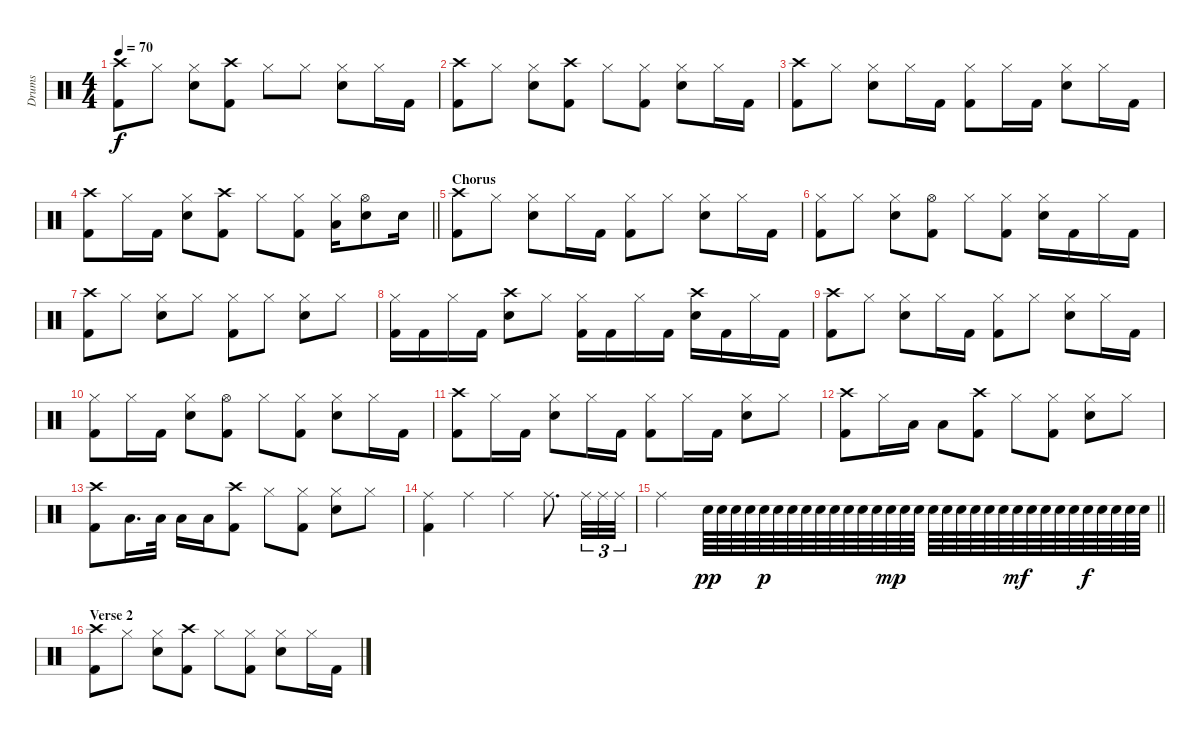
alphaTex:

\track ("Drums" "Drums") {instrument percussion}
\staff {score}
\articulation defaults
\ts (4 4)
\tempo 70
\clef neutral
\ks c
("Crash high (hit)" "Kick (hit) 2").8{dy f} "Hi-Hat (closed)".8 ("Hi-Hat (closed)" "Snare (hit) 2").8 ("Crash high (hit)" "Kick (hit) 2").8 "Hi-Hat (closed)".8 "Hi-Hat (closed)".8 ("Hi-Hat (closed)" "Snare (hit) 2").8 "Hi-Hat (closed)".16 "Kick (hit) 2".16 |
("Crash high (hit)" "Kick (hit) 2").8 "Hi-Hat (closed)".8 ("Hi-Hat (closed)" "Snare (hit) 2").8 ("Crash high (hit)" "Kick (hit) 2").8 "Hi-Hat (closed)".8 ("Hi-Hat (closed)" "Kick (hit) 2").8 ("Hi-Hat (closed)" "Snare (hit) 2").8 "Hi-Hat (closed)".16 "Kick (hit) 2".16 |
("Crash high (hit)" "Kick (hit) 2").8 "Hi-Hat (closed)".8 ("Hi-Hat (closed)" "Snare (hit) 2").8 "Hi-Hat (closed)".16 "Kick (hit) 2".16 ("Hi-Hat (closed)" "Kick (hit) 2").8 "Hi-Hat (closed)".16 "Kick (hit) 2".16 ("Hi-Hat (closed)" "Snare (hit) 2").8 "Hi-Hat (closed)".16 "Kick (hit) 2".16 |
\barLineRight lightlight
("Crash high (hit)" "Kick (hit) 2").8 "Hi-Hat (closed)".16 "Kick (hit) 2".16 ("Hi-Hat (closed)" "Snare (hit) 2").8 ("Crash high (hit)" "Kick (hit) 2").8 "Hi-Hat (closed)".8 ("Hi-Hat (closed)" "Kick (hit) 2").8 ("Hi-Hat (closed)" "Low Tom (hit)").16 ("Hi-Hat (open)" "Snare (hit) 2").8 "Snare (hit) 2".16 |
\section ("" "Chorus")
("Crash high (hit)" "Kick (hit) 2").8 "Hi-Hat (closed)".8 ("Hi-Hat (closed)" "Snare (hit) 2").8 "Hi-Hat (closed)".16 "Kick (hit) 2".16 ("Hi-Hat (closed)" "Kick (hit) 2").8 "Hi-Hat (closed)".8 ("Hi-Hat (closed)" "Snare (hit) 2").8 "Hi-Hat (closed)".16 "Kick (hit) 2".16 |
("Hi-Hat (closed)" "Kick (hit) 2").8 "Hi-Hat (closed)".8 ("Hi-Hat (closed)" "Snare (hit) 2").8 ("Hi-Hat (open)" "Kick (hit) 2").8 "Hi-Hat (closed)".8 ("Hi-Hat (closed)" "Kick (hit) 2").8 ("Hi-Hat (closed)" "Snare (hit) 2").16 "Kick (hit) 2".16 "Hi-Hat (closed)".16 "Kick (hit) 2".16 |
("Crash high (hit)" "Kick (hit) 2").8 "Hi-Hat (closed)".8 ("Hi-Hat (closed)" "Snare (hit) 2").8 "Hi-Hat (closed)".8 ("Hi-Hat (closed)" "Kick (hit) 2").8 "Hi-Hat (closed)".8 ("Hi-Hat (closed)" "Snare (hit) 2").8 "Hi-Hat (closed)".8 |
("Hi-Hat (closed)" "Kick (hit) 2").16 "Kick (hit) 2".16 "Hi-Hat (closed)".16 "Kick (hit) 2".16 ("Crash high (hit)" "Snare (hit) 2").8 "Hi-Hat (closed)".8 ("Hi-Hat (closed)" "Kick (hit) 2").16 "Kick (hit) 2".16 "Hi-Hat (closed)".16 "Kick (hit) 2".16 ("Crash high (hit)" "Snare (hit) 2").16 "Kick (hit) 2".16 "Hi-Hat (closed)".16 "Kick (hit) 2".16 |
("Crash high (hit)" "Kick (hit) 2").8 "Hi-Hat (closed)".8 ("Hi-Hat (closed)" "Snare (hit) 2").8 "Hi-Hat (closed)".16 "Kick (hit) 2".16 ("Hi-Hat (closed)" "Kick (hit) 2").8 "Hi-Hat (closed)".8 ("Hi-Hat (closed)" "Snare (hit) 2").8 "Hi-Hat (closed)".16 "Kick (hit) 2".16 |
("Hi-Hat (closed)" "Kick (hit) 2").8 "Hi-Hat (closed)".16 "Kick (hit) 2".16 ("Hi-Hat (closed)" "Snare (hit) 2").8 ("Hi-Hat (open)" "Kick (hit) 2").8 "Hi-Hat (closed)".8 ("Hi-Hat (closed)" "Kick (hit) 2").8 ("Hi-Hat (closed)" "Snare (hit) 2").8 "Hi-Hat (closed)".16 "Kick (hit) 2".16 |
("Crash high (hit)" "Kick (hit) 2").8 "Hi-Hat (closed)".16 "Kick (hit) 2".16 ("Hi-Hat (closed)" "Snare (hit) 2").8 "Hi-Hat (closed)".16 "Kick (hit) 2".16 ("Hi-Hat (closed)" "Kick (hit) 2").8 "Hi-Hat (closed)".16 "Kick (hit) 2".16 ("Hi-Hat (closed)" "Snare (hit) 2").8 "Hi-Hat (closed)".8 |
("Crash high (hit)" "Kick (hit) 2").8 "Hi-Hat (closed)".16 "Low Tom (hit)".16 "Low Tom (hit)".8 ("Crash high (hit)" "Kick (hit) 2").8 "Hi-Hat (closed)".8 ("Hi-Hat (closed)" "Kick (hit) 2").8 ("Hi-Hat (closed)" "Snare (hit) 2").8 "Hi-Hat (closed)".8 |
("Crash high (hit)" "Kick (hit) 2").8 "Low Tom (hit)".16{d} "Low Tom (hit)".32 "Low Tom (hit)".16 "Low Tom (hit)".16 ("Crash high (hit)" "Kick (hit) 2").8 "Hi-Hat (closed)".8 ("Hi-Hat (closed)" "Kick (hit) 2").8 ("Hi-Hat (closed)" "Snare (hit) 2").8 "Hi-Hat (closed)".8 |
("Ride (middle)" "Kick (hit) 2").4 "Ride (middle)".4 "Ride (middle)".4 "Ride (middle)".8{d} "Ride (middle)".32{tu (3 2)} "Ride (middle)".32{tu (3 2)} "Ride (middle)".32{tu (3 2)} |
\barLineRight lightlight "Ride (middle)".2 "Snare (hit) 2".64{dy pp} "Snare (hit) 2".64 "Snare (hit) 2".64 "Snare (hit) 2".64 "Snare (hit) 2".64{dy p} "Snare (hit) 2".64 "Snare (hit) 2".64 "Snare (hit) 2".64 "Snare (hit) 2".64 "Snare (hit) 2".64 "Snare (hit) 2".64 "Snare (hit) 2".64 "Snare (hit) 2".64 "Snare (hit) 2".64{dy mp} "Snare (hit) 2".64 "Snare (hit) 2".64 "Snare (hit) 2".64 "Snare (hit) 2".64 "Snare (hit) 2".64 "Snare (hit) 2".64 "Snare (hit) 2".64 "Snare (hit) 2".64 "Snare (hit) 2".64{dy mf} "Snare (hit) 2".64 "Snare (hit) 2".64 "Snare (hit) 2".64 "Snare (hit) 2".64 "Snare (hit) 2".64{dy f} "Snare (hit) 2".64 "Snare (hit) 2".64 "Snare (hit) 2".64 "Snare (hit) 2".64
|
\section ("" "Verse 2")
("Crash high (hit)" "Kick (hit) 2").8 "Hi-Hat (closed)".8 ("Hi-Hat (closed)" "Snare (hit) 2").8 ("Crash high (hit)" "Kick (hit) 2").8 "Hi-Hat (closed)".8 ("Hi-Hat (closed)" "Kick (hit) 2").8 ("Hi-Hat (closed)" "Snare (hit) 2").8 "Hi-Hat (closed)".16 "Kick (hit) 2".16
